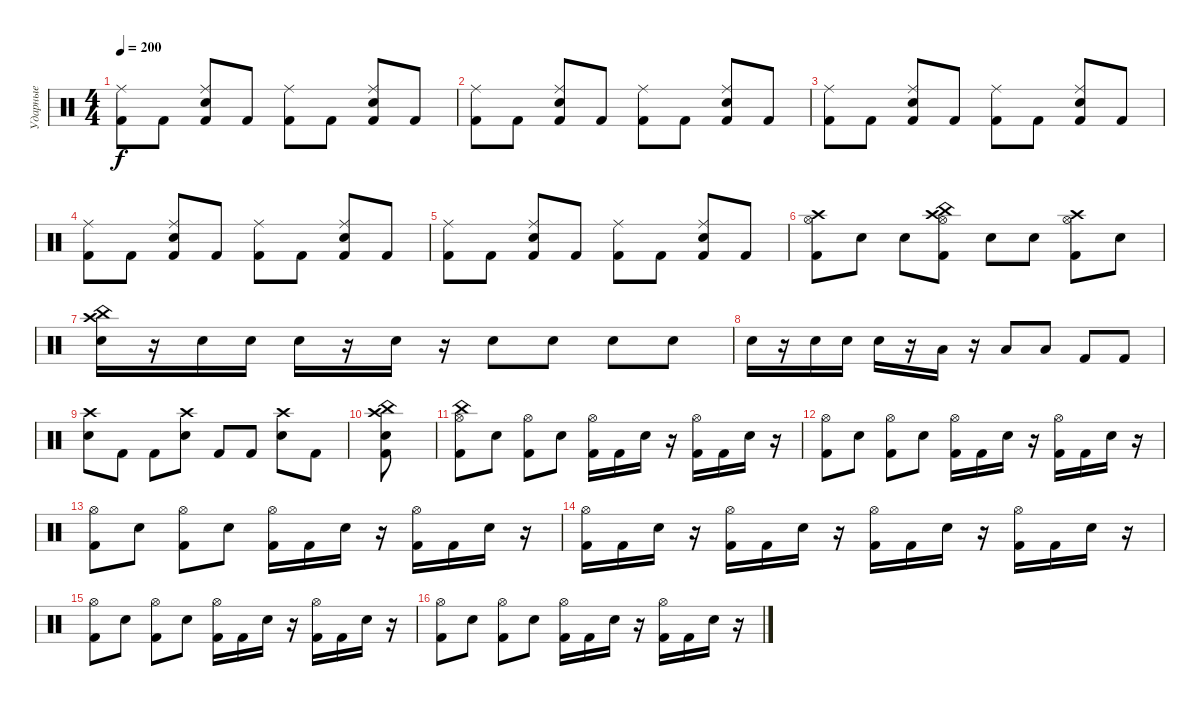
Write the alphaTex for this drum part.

\track ("Ударные" "Ударные") {instrument percussion}
\staff {score}
\articulation defaults
\ts (4 4)
\tempo 200
\clef neutral
\ks c
("Kick (hit) 2" "Ride (middle)").8{dy f} "Kick (hit) 2".8 ("Kick (hit) 2" "Electric Snare (hit)" "Ride (middle)").8 "Kick (hit) 2".8 ("Kick (hit) 2" "Ride (middle)").8 "Kick (hit) 2".8 ("Kick (hit) 2" "Electric Snare (hit)" "Ride (middle)").8 "Kick (hit) 2".8 |
("Kick (hit) 2" "Ride (middle)").8 "Kick (hit) 2".8 ("Kick (hit) 2" "Electric Snare (hit)" "Ride (middle)").8 "Kick (hit) 2".8 ("Kick (hit) 2" "Ride (middle)").8 "Kick (hit) 2".8 ("Kick (hit) 2" "Electric Snare (hit)" "Ride (middle)").8 "Kick (hit) 2".8 |
("Kick (hit) 2" "Ride (middle)").8 "Kick (hit) 2".8 ("Kick (hit) 2" "Electric Snare (hit)" "Ride (middle)").8 "Kick (hit) 2".8 ("Kick (hit) 2" "Ride (middle)").8 "Kick (hit) 2".8 ("Kick (hit) 2" "Electric Snare (hit)" "Ride (middle)").8 "Kick (hit) 2".8 |
("Kick (hit) 2" "Ride (middle)").8 "Kick (hit) 2".8 ("Kick (hit) 2" "Electric Snare (hit)" "Ride (middle)").8 "Kick (hit) 2".8 ("Kick (hit) 2" "Ride (middle)").8 "Kick (hit) 2".8 ("Kick (hit) 2" "Electric Snare (hit)" "Ride (middle)").8 "Kick (hit) 2".8 |
("Kick (hit) 2" "Ride (middle)").8 "Kick (hit) 2".8 ("Kick (hit) 2" "Electric Snare (hit)" "Ride (middle)").8 "Kick (hit) 2".8 ("Kick (hit) 2" "Ride (middle)").8 "Kick (hit) 2".8 ("Kick (hit) 2" "Electric Snare (hit)" "Ride (middle)").8 "Kick (hit) 2".8 |
("Kick (hit) 2" "Hi-Hat (open)" "Crash high (hit)").8 "Electric Snare (hit)".8 "Electric Snare (hit)".8 ("Kick (hit) 2" "Hi-Hat (open)" "Crash high (hit)" "China (hit)").8 "Electric Snare (hit)".8 "Electric Snare (hit)".8 ("Kick (hit) 2" "Hi-Hat (open)" "Crash high (hit)").8 "Electric Snare (hit)".8 |
("Electric Snare (hit)" "Crash high (hit)" "China (hit)").16 r.16 "Electric Snare (hit)".16 "Electric Snare (hit)".16 "Electric Snare (hit)".16 r.16 "Electric Snare (hit)".16 r.16 "Electric Snare (hit)".8 "Snare (hit) 2".8 "Snare (hit) 2".8 "Snare (hit) 2".8 |
"Snare (hit) 2".16 r.16 "Snare (hit) 2".16 "Snare (hit) 2".16 "Snare (hit) 2".16 r.16 "Low Tom (hit)".16 r.16 "Low Tom (hit)".8 "Low Tom (hit)".8 "Kick (hit) 2".8 "Kick (hit) 2".8 |
("Electric Snare (hit)" "Crash high (hit)").8 "Kick (hit) 2".8 "Kick (hit) 2".8 ("Electric Snare (hit)" "Crash high (hit)").8 "Kick (hit) 2".8 "Kick (hit) 2".8 ("Electric Snare (hit)" "Crash high (hit)").8 "Kick (hit) 2".8 |
("Kick (hit) 2" "Electric Snare (hit)" "Crash high (hit)" "China (hit)").8 |
("Kick (hit) 2" "Hi-Hat (open)" "China (hit)").8 "Electric Snare (hit)".8 ("Kick (hit) 2" "Hi-Hat (open)").8 "Electric Snare (hit)".8 ("Kick (hit) 2" "Hi-Hat (open)").16 "Kick (hit) 2".16 "Electric Snare (hit)".16 r.16 ("Kick (hit) 2" "Hi-Hat (open)").16 "Kick (hit) 2".16 "Electric Snare (hit)".16 r.16 |
("Kick (hit) 2" "Hi-Hat (open)").8 "Electric Snare (hit)".8 ("Kick (hit) 2" "Hi-Hat (open)").8 "Electric Snare (hit)".8 ("Kick (hit) 2" "Hi-Hat (open)").16 "Kick (hit) 2".16 "Electric Snare (hit)".16 r.16 ("Kick (hit) 2" "Hi-Hat (open)").16 "Kick (hit) 2".16 "Electric Snare (hit)".16 r.16 |
("Kick (hit) 2" "Hi-Hat (open)").8 "Electric Snare (hit)".8 ("Kick (hit) 2" "Hi-Hat (open)").8 "Electric Snare (hit)".8 ("Kick (hit) 2" "Hi-Hat (open)").16 "Kick (hit) 2".16 "Electric Snare (hit)".16 r.16 ("Kick (hit) 2" "Hi-Hat (open)").16 "Kick (hit) 2".16 "Electric Snare (hit)".16 r.16 |
("Kick (hit) 2" "Hi-Hat (open)").16 "Kick (hit) 2".16 "Electric Snare (hit)".16 r.16 ("Kick (hit) 2" "Hi-Hat (open)").16 "Kick (hit) 2".16 "Electric Snare (hit)".16 r.16 ("Kick (hit) 2" "Hi-Hat (open)").16 "Kick (hit) 2".16 "Electric Snare (hit)".16 r.16 ("Kick (hit) 2" "Hi-Hat (open)").16 "Kick (hit) 2".16 "Electric Snare (hit)".16 r.16 |
("Kick (hit) 2" "Hi-Hat (open)").8 "Electric Snare (hit)".8 ("Kick (hit) 2" "Hi-Hat (open)").8 "Electric Snare (hit)".8 ("Kick (hit) 2" "Hi-Hat (open)").16 "Kick (hit) 2".16 "Electric Snare (hit)".16 r.16 ("Kick (hit) 2" "Hi-Hat (open)").16 "Kick (hit) 2".16 "Electric Snare (hit)".16 r.16 |
("Kick (hit) 2" "Hi-Hat (open)").8 "Electric Snare (hit)".8 ("Kick (hit) 2" "Hi-Hat (open)").8 "Electric Snare (hit)".8 ("Kick (hit) 2" "Hi-Hat (open)").16 "Kick (hit) 2".16 "Electric Snare (hit)".16 r.16 ("Kick (hit) 2" "Hi-Hat (open)").16 "Kick (hit) 2".16 "Electric Snare (hit)".16 r.16
